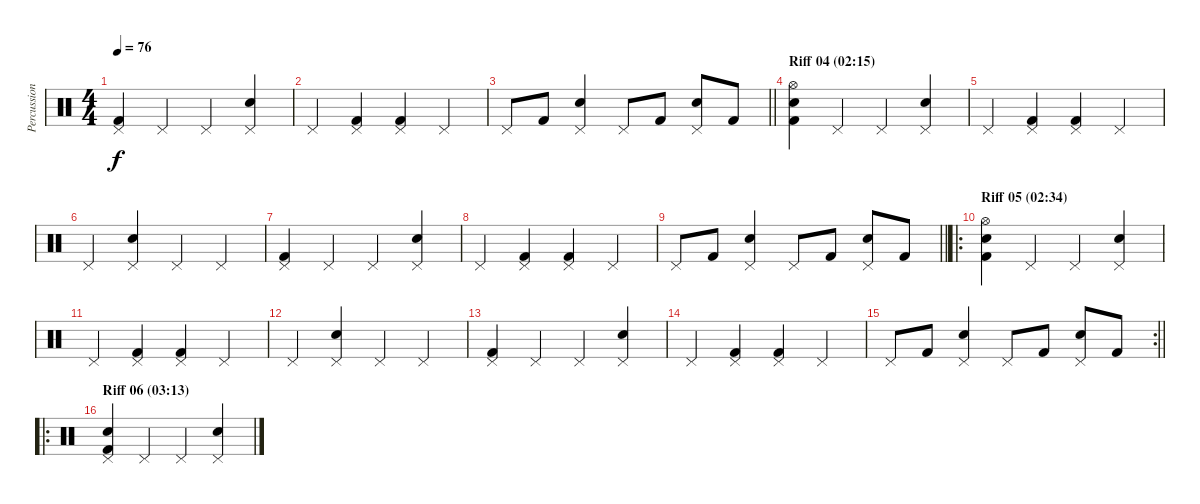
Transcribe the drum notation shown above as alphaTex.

\track ("Percussion" "Percussion") {instrument percussion}
\staff {score}
\articulation defaults
\ts (4 4)
\tempo 76
\clef neutral
\ks c
("Kick (hit) 2" "Pedal Hi-Hat (hit)").4{dy f} "Pedal Hi-Hat (hit)".4 "Pedal Hi-Hat (hit)".4 ("Snare (hit) 2" "Pedal Hi-Hat (hit)").4 |
"Pedal Hi-Hat (hit)".4 ("Kick (hit) 2" "Pedal Hi-Hat (hit)").4 ("Kick (hit) 2" "Pedal Hi-Hat (hit)").4 "Pedal Hi-Hat (hit)".4 |
\barLineRight lightlight "Pedal Hi-Hat (hit)".8 "Kick (hit) 2".8
("Snare (hit) 2" "Pedal Hi-Hat (hit)").4 "Pedal Hi-Hat (hit)".8 "Kick (hit) 2".8 ("Snare (hit) 2" "Pedal Hi-Hat (hit)").8 "Kick (hit) 2".8 |
\section ("" "Riff 04 (02:15)")
("Kick (hit) 2" "Snare (hit) 2" "Hi-Hat (open)").4 "Pedal Hi-Hat (hit)".4 "Pedal Hi-Hat (hit)".4 ("Snare (hit) 2" "Pedal Hi-Hat (hit)").4 |
"Pedal Hi-Hat (hit)".4 ("Kick (hit) 2" "Pedal Hi-Hat (hit)").4 ("Kick (hit) 2" "Pedal Hi-Hat (hit)").4 "Pedal Hi-Hat (hit)".4 |
"Pedal Hi-Hat (hit)".4 ("Snare (hit) 2" "Pedal Hi-Hat (hit)").4 "Pedal Hi-Hat (hit)".4 "Pedal Hi-Hat (hit)".4 |
("Kick (hit) 2" "Pedal Hi-Hat (hit)").4 "Pedal Hi-Hat (hit)".4 "Pedal Hi-Hat (hit)".4 ("Snare (hit) 2" "Pedal Hi-Hat (hit)").4 |
"Pedal Hi-Hat (hit)".4 ("Kick (hit) 2" "Pedal Hi-Hat (hit)").4 ("Kick (hit) 2" "Pedal Hi-Hat (hit)").4 "Pedal Hi-Hat (hit)".4 |
\barLineRight lightlight "Pedal Hi-Hat (hit)".8 "Kick (hit) 2".8
("Snare (hit) 2" "Pedal Hi-Hat (hit)").4 "Pedal Hi-Hat (hit)".8 "Kick (hit) 2".8 ("Snare (hit) 2" "Pedal Hi-Hat (hit)").8 "Kick (hit) 2".8 |
\ro
\section ("" "Riff 05 (02:34)")
("Kick (hit) 2" "Snare (hit) 2" "Hi-Hat (open)").4 "Pedal Hi-Hat (hit)".4 "Pedal Hi-Hat (hit)".4 ("Snare (hit) 2" "Pedal Hi-Hat (hit)").4 |
"Pedal Hi-Hat (hit)".4 ("Kick (hit) 2" "Pedal Hi-Hat (hit)").4 ("Kick (hit) 2" "Pedal Hi-Hat (hit)").4 "Pedal Hi-Hat (hit)".4 |
"Pedal Hi-Hat (hit)".4 ("Snare (hit) 2" "Pedal Hi-Hat (hit)").4 "Pedal Hi-Hat (hit)".4 "Pedal Hi-Hat (hit)".4 |
("Kick (hit) 2" "Pedal Hi-Hat (hit)").4 "Pedal Hi-Hat (hit)".4 "Pedal Hi-Hat (hit)".4 ("Snare (hit) 2" "Pedal Hi-Hat (hit)").4 |
"Pedal Hi-Hat (hit)".4 ("Kick (hit) 2" "Pedal Hi-Hat (hit)").4 ("Kick (hit) 2" "Pedal Hi-Hat (hit)").4 "Pedal Hi-Hat (hit)".4 |
\rc 2
\barLineRight lightlight "Pedal Hi-Hat (hit)".8 "Kick (hit) 2".8
("Snare (hit) 2" "Pedal Hi-Hat (hit)").4 "Pedal Hi-Hat (hit)".8 "Kick (hit) 2".8 ("Snare (hit) 2" "Pedal Hi-Hat (hit)").8 "Kick (hit) 2".8 |
\ro
\section ("" "Riff 06 (03:13)")
("Kick (hit) 2" "Snare (hit) 2" "Pedal Hi-Hat (hit)").4 "Pedal Hi-Hat (hit)".4 "Pedal Hi-Hat (hit)".4 ("Snare (hit) 2" "Pedal Hi-Hat (hit)").4
